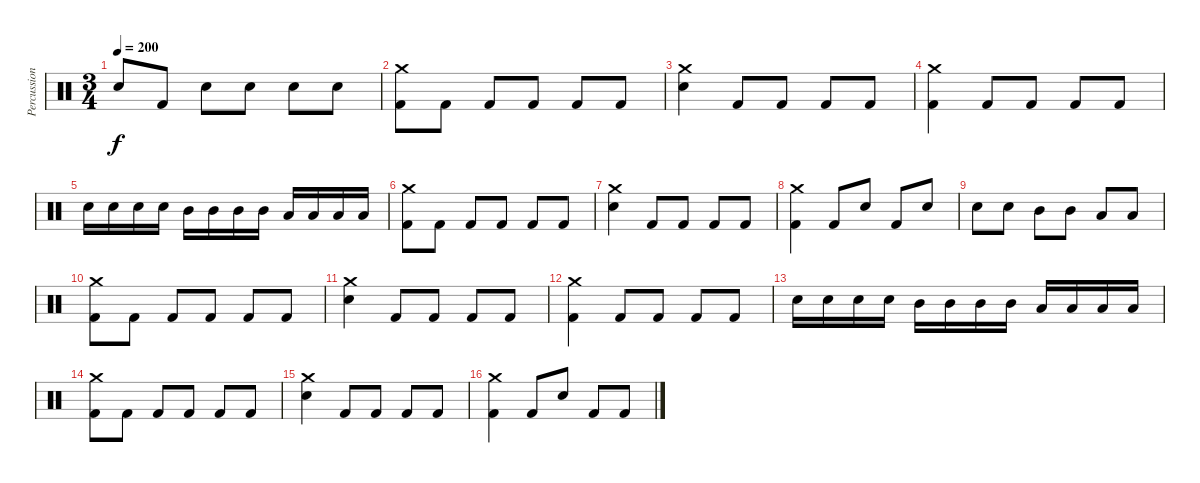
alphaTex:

\track ("Percussion" "Percussion") {instrument percussion}
\staff {score}
\articulation defaults
\ts (3 4)
\tempo 200
\clef neutral
\ks c "Snare (hit) 2".8{dy f} "Kick (hit) 2".8 "Snare (hit) 2".8 "Snare (hit) 2".8 "Snare (hit) 2".8 "Snare (hit) 2".8
|
("Crash medium (hit)" "Kick (hit) 2").8 "Kick (hit) 2".8 "Kick (hit) 2".8 "Kick (hit) 2".8 "Kick (hit) 2".8 "Kick (hit) 2".8 |
("Crash medium (hit)" "Snare (hit) 2").4 "Kick (hit) 2".8 "Kick (hit) 2".8 "Kick (hit) 2".8 "Kick (hit) 2".8 |
("Crash medium (hit)" "Kick (hit) 2").4 "Kick (hit) 2".8 "Kick (hit) 2".8 "Kick (hit) 2".8 "Kick (hit) 2".8 |
"Snare (hit) 2".16 "Snare (hit) 2".16 "Snare (hit) 2".16 "Snare (hit) 2".16 "Mid Tom (hit)".16 "Mid Tom (hit)".16 "Mid Tom (hit)".16 "Mid Tom (hit)".16 "Low Tom (hit)".16 "Low Tom (hit)".16 "Low Tom (hit)".16 "Low Tom (hit)".16 |
("Crash medium (hit)" "Kick (hit) 2").8 "Kick (hit) 2".8 "Kick (hit) 2".8 "Kick (hit) 2".8 "Kick (hit) 2".8 "Kick (hit) 2".8 |
("Crash medium (hit)" "Snare (hit) 2").4 "Kick (hit) 2".8 "Kick (hit) 2".8 "Kick (hit) 2".8 "Kick (hit) 2".8 |
("Crash medium (hit)" "Kick (hit) 2").4 "Kick (hit) 2".8 "Snare (hit) 2".8 "Kick (hit) 2".8 "Snare (hit) 2".8 |
"Snare (hit) 2".8 "Snare (hit) 2".8 "Mid Tom (hit)".8 "Mid Tom (hit)".8 "Low Tom (hit)".8 "Low Tom (hit)".8 |
("Crash medium (hit)" "Kick (hit) 2").8 "Kick (hit) 2".8 "Kick (hit) 2".8 "Kick (hit) 2".8 "Kick (hit) 2".8 "Kick (hit) 2".8 |
("Crash medium (hit)" "Snare (hit) 2").4 "Kick (hit) 2".8 "Kick (hit) 2".8 "Kick (hit) 2".8 "Kick (hit) 2".8 |
("Crash medium (hit)" "Kick (hit) 2").4 "Kick (hit) 2".8 "Kick (hit) 2".8 "Kick (hit) 2".8 "Kick (hit) 2".8 |
"Snare (hit) 2".16 "Snare (hit) 2".16 "Snare (hit) 2".16 "Snare (hit) 2".16 "Mid Tom (hit)".16 "Mid Tom (hit)".16 "Mid Tom (hit)".16 "Mid Tom (hit)".16 "Low Tom (hit)".16 "Low Tom (hit)".16 "Low Tom (hit)".16 "Low Tom (hit)".16 |
("Crash medium (hit)" "Kick (hit) 2").8 "Kick (hit) 2".8 "Kick (hit) 2".8 "Kick (hit) 2".8 "Kick (hit) 2".8 "Kick (hit) 2".8 |
("Crash medium (hit)" "Snare (hit) 2").4 "Kick (hit) 2".8 "Kick (hit) 2".8 "Kick (hit) 2".8 "Kick (hit) 2".8 |
("Crash medium (hit)" "Kick (hit) 2").4 "Kick (hit) 2".8 "Snare (hit) 2".8 "Kick (hit) 2".8 "Kick (hit) 2".8
